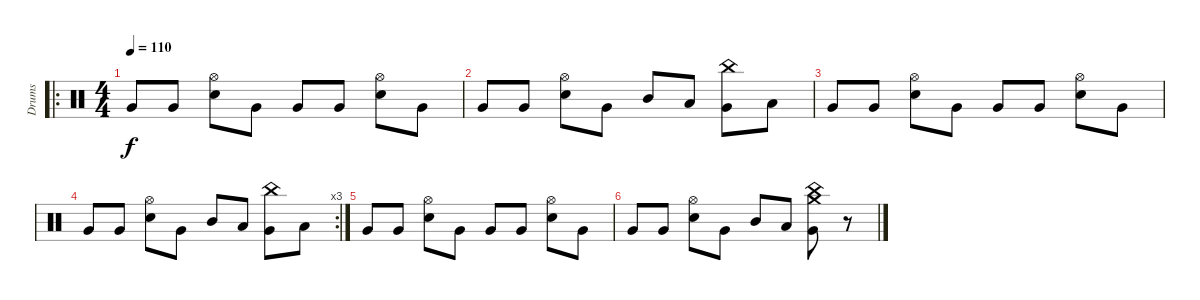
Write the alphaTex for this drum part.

\track ("Drums" "Drums") {instrument percussion}
\staff {score}
\articulation defaults
\ro
\ts (4 4)
\tempo 110
\clef neutral
\ks c "Very Low Tom (hit)".8{dy f} "Very Low Tom (hit)".8
("Hi-Hat (open)" "Snare (hit) 2").8 "Very Low Tom (hit)".8 "Very Low Tom (hit)".8 "Very Low Tom (hit)".8 ("Hi-Hat (open)" "Snare (hit) 2").8 "Very Low Tom (hit)".8 |
"Very Low Tom (hit)".8 "Very Low Tom (hit)".8 ("Hi-Hat (open)" "Snare (hit) 2").8 "Very Low Tom (hit)".8 "Mid Tom (hit)".8 "Low Tom (hit)".8 ("China (hit)" "Very Low Tom (hit)").8 "Low Floor Tom (hit)".8 |
"Very Low Tom (hit)".8 "Very Low Tom (hit)".8 ("Hi-Hat (open)" "Snare (hit) 2").8 "Very Low Tom (hit)".8 "Very Low Tom (hit)".8 "Very Low Tom (hit)".8 ("Hi-Hat (open)" "Snare (hit) 2").8 "Very Low Tom (hit)".8 |
\rc 3 "Very Low Tom (hit)".8 "Very Low Tom (hit)".8
("Hi-Hat (open)" "Snare (hit) 2").8 "Very Low Tom (hit)".8 "Mid Tom (hit)".8 "Low Tom (hit)".8 ("China (hit)" "Very Low Tom (hit)").8 "Low Floor Tom (hit)".8 |
"Very Low Tom (hit)".8 "Very Low Tom (hit)".8 ("Hi-Hat (open)" "Snare (hit) 2").8 "Very Low Tom (hit)".8 "Very Low Tom (hit)".8 "Very Low Tom (hit)".8 ("Hi-Hat (open)" "Snare (hit) 2").8 "Very Low Tom (hit)".8 |
"Very Low Tom (hit)".8 "Very Low Tom (hit)".8 ("Hi-Hat (open)" "Snare (hit) 2").8 "Very Low Tom (hit)".8 "Mid Tom (hit)".8 "Low Tom (hit)".8 ("China (hit)" "Crash medium (hit)" "Very Low Tom (hit)").8 r.8
